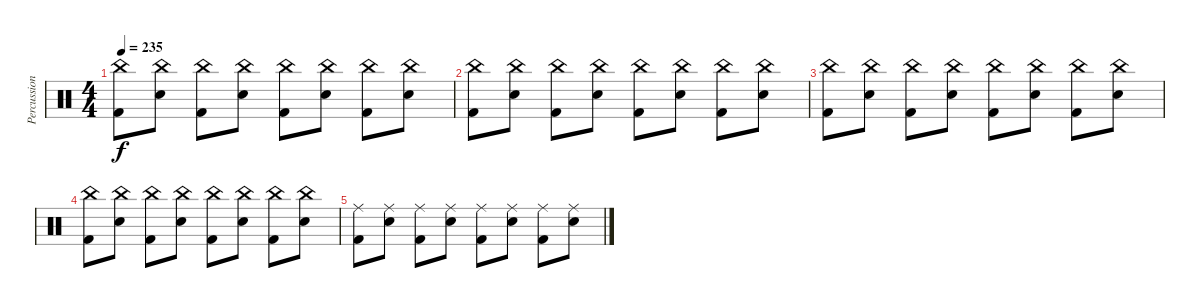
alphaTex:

\track ("Percussion- Scott Raynor" "Percussion") {instrument percussion}
\staff {score}
\articulation defaults
\ts (4 4)
\tempo 235
\clef neutral
\ks c
("China (hit)" "Kick (hit) 2").8{dy f} ("China (hit)" "Snare (hit) 2").8 ("China (hit)" "Kick (hit) 2").8 ("China (hit)" "Snare (hit) 2").8 ("China (hit)" "Kick (hit) 2").8 ("China (hit)" "Snare (hit) 2").8 ("China (hit)" "Kick (hit) 2").8 ("China (hit)" "Snare (hit) 2").8 |
("China (hit)" "Kick (hit) 2").8 ("China (hit)" "Snare (hit) 2").8 ("China (hit)" "Kick (hit) 2").8 ("China (hit)" "Snare (hit) 2").8 ("China (hit)" "Kick (hit) 2").8 ("China (hit)" "Snare (hit) 2").8 ("China (hit)" "Kick (hit) 2").8 ("China (hit)" "Snare (hit) 2").8 |
("China (hit)" "Kick (hit) 2").8 ("China (hit)" "Snare (hit) 2").8 ("China (hit)" "Kick (hit) 2").8 ("China (hit)" "Snare (hit) 2").8 ("China (hit)" "Kick (hit) 2").8 ("China (hit)" "Snare (hit) 2").8 ("China (hit)" "Kick (hit) 2").8 ("China (hit)" "Snare (hit) 2").8 |
("China (hit)" "Kick (hit) 2").8 ("China (hit)" "Snare (hit) 2").8 ("China (hit)" "Kick (hit) 2").8 ("China (hit)" "Snare (hit) 2").8 ("China (hit)" "Kick (hit) 2").8 ("China (hit)" "Snare (hit) 2").8 ("China (hit)" "Kick (hit) 2").8 ("China (hit)" "Snare (hit) 2").8 |
("Ride (middle)" "Kick (hit) 2").8 ("Ride (middle)" "Snare (hit) 2").8 ("Ride (middle)" "Kick (hit) 2").8 ("Ride (middle)" "Snare (hit) 2").8 ("Ride (middle)" "Kick (hit) 2").8 ("Ride (middle)" "Snare (hit) 2").8 ("Ride (middle)" "Kick (hit) 2").8 ("Ride (middle)" "Snare (hit) 2").8
